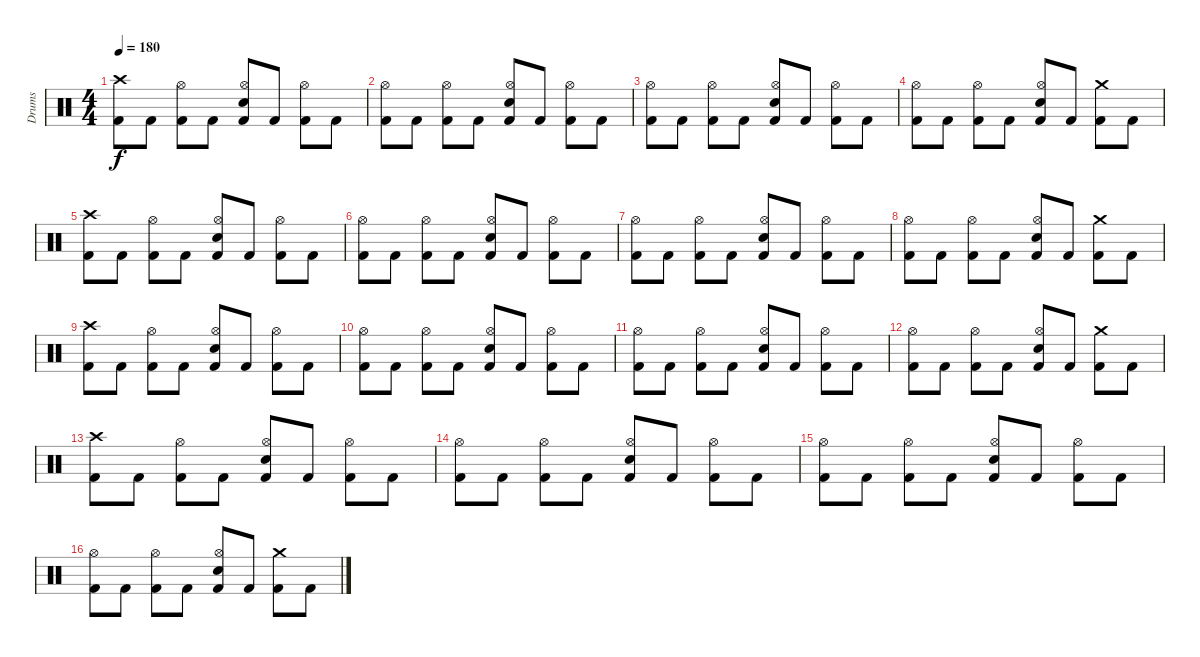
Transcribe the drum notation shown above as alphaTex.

\track ("Drums" "Drums") {instrument percussion}
\staff {score}
\articulation defaults
\ts (4 4)
\tempo 180
\clef neutral
\ks c
("Crash high (hit)" "Kick (hit) 2").8{dy f} "Kick (hit) 2".8 ("Hi-Hat (open)" "Kick (hit) 2").8 "Kick (hit) 2".8 ("Hi-Hat (open)" "Electric Snare (hit)" "Kick (hit) 2").8 "Kick (hit) 2".8 ("Hi-Hat (open)" "Kick (hit) 2").8 "Kick (hit) 2".8 |
("Hi-Hat (open)" "Kick (hit) 2").8 "Kick (hit) 2".8 ("Hi-Hat (open)" "Kick (hit) 2").8 "Kick (hit) 2".8 ("Hi-Hat (open)" "Electric Snare (hit)" "Kick (hit) 2").8 "Kick (hit) 2".8 ("Hi-Hat (open)" "Kick (hit) 2").8 "Kick (hit) 2".8 |
("Hi-Hat (open)" "Kick (hit) 2").8 "Kick (hit) 2".8 ("Hi-Hat (open)" "Kick (hit) 2").8 "Kick (hit) 2".8 ("Hi-Hat (open)" "Electric Snare (hit)" "Kick (hit) 2").8 "Kick (hit) 2".8 ("Hi-Hat (open)" "Kick (hit) 2").8 "Kick (hit) 2".8 |
("Hi-Hat (open)" "Kick (hit) 2").8 "Kick (hit) 2".8 ("Hi-Hat (open)" "Kick (hit) 2").8 "Kick (hit) 2".8 ("Hi-Hat (open)" "Electric Snare (hit)" "Kick (hit) 2").8 "Kick (hit) 2".8 ("Crash medium (hit)" "Kick (hit) 2").8 "Kick (hit) 2".8 |
("Crash high (hit)" "Kick (hit) 2").8 "Kick (hit) 2".8 ("Hi-Hat (open)" "Kick (hit) 2").8 "Kick (hit) 2".8 ("Hi-Hat (open)" "Electric Snare (hit)" "Kick (hit) 2").8 "Kick (hit) 2".8 ("Hi-Hat (open)" "Kick (hit) 2").8 "Kick (hit) 2".8 |
("Hi-Hat (open)" "Kick (hit) 2").8 "Kick (hit) 2".8 ("Hi-Hat (open)" "Kick (hit) 2").8 "Kick (hit) 2".8 ("Hi-Hat (open)" "Electric Snare (hit)" "Kick (hit) 2").8 "Kick (hit) 2".8 ("Hi-Hat (open)" "Kick (hit) 2").8 "Kick (hit) 2".8 |
("Hi-Hat (open)" "Kick (hit) 2").8 "Kick (hit) 2".8 ("Hi-Hat (open)" "Kick (hit) 2").8 "Kick (hit) 2".8 ("Hi-Hat (open)" "Electric Snare (hit)" "Kick (hit) 2").8 "Kick (hit) 2".8 ("Hi-Hat (open)" "Kick (hit) 2").8 "Kick (hit) 2".8 |
("Hi-Hat (open)" "Kick (hit) 2").8 "Kick (hit) 2".8 ("Hi-Hat (open)" "Kick (hit) 2").8 "Kick (hit) 2".8 ("Hi-Hat (open)" "Electric Snare (hit)" "Kick (hit) 2").8 "Kick (hit) 2".8 ("Crash medium (hit)" "Kick (hit) 2").8 "Kick (hit) 2".8 |
("Crash high (hit)" "Kick (hit) 2").8 "Kick (hit) 2".8 ("Hi-Hat (open)" "Kick (hit) 2").8 "Kick (hit) 2".8 ("Hi-Hat (open)" "Electric Snare (hit)" "Kick (hit) 2").8 "Kick (hit) 2".8 ("Hi-Hat (open)" "Kick (hit) 2").8 "Kick (hit) 2".8 |
("Hi-Hat (open)" "Kick (hit) 2").8 "Kick (hit) 2".8 ("Hi-Hat (open)" "Kick (hit) 2").8 "Kick (hit) 2".8 ("Hi-Hat (open)" "Electric Snare (hit)" "Kick (hit) 2").8 "Kick (hit) 2".8 ("Hi-Hat (open)" "Kick (hit) 2").8 "Kick (hit) 2".8 |
("Hi-Hat (open)" "Kick (hit) 2").8 "Kick (hit) 2".8 ("Hi-Hat (open)" "Kick (hit) 2").8 "Kick (hit) 2".8 ("Hi-Hat (open)" "Electric Snare (hit)" "Kick (hit) 2").8 "Kick (hit) 2".8 ("Hi-Hat (open)" "Kick (hit) 2").8 "Kick (hit) 2".8 |
("Hi-Hat (open)" "Kick (hit) 2").8 "Kick (hit) 2".8 ("Hi-Hat (open)" "Kick (hit) 2").8 "Kick (hit) 2".8 ("Hi-Hat (open)" "Electric Snare (hit)" "Kick (hit) 2").8 "Kick (hit) 2".8 ("Crash medium (hit)" "Kick (hit) 2").8 "Kick (hit) 2".8 |
("Crash high (hit)" "Kick (hit) 2").8 "Kick (hit) 2".8 ("Hi-Hat (open)" "Kick (hit) 2").8 "Kick (hit) 2".8 ("Hi-Hat (open)" "Electric Snare (hit)" "Kick (hit) 2").8 "Kick (hit) 2".8 ("Hi-Hat (open)" "Kick (hit) 2").8 "Kick (hit) 2".8 |
("Hi-Hat (open)" "Kick (hit) 2").8 "Kick (hit) 2".8 ("Hi-Hat (open)" "Kick (hit) 2").8 "Kick (hit) 2".8 ("Hi-Hat (open)" "Electric Snare (hit)" "Kick (hit) 2").8 "Kick (hit) 2".8 ("Hi-Hat (open)" "Kick (hit) 2").8 "Kick (hit) 2".8 |
("Hi-Hat (open)" "Kick (hit) 2").8 "Kick (hit) 2".8 ("Hi-Hat (open)" "Kick (hit) 2").8 "Kick (hit) 2".8 ("Hi-Hat (open)" "Electric Snare (hit)" "Kick (hit) 2").8 "Kick (hit) 2".8 ("Hi-Hat (open)" "Kick (hit) 2").8 "Kick (hit) 2".8 |
("Hi-Hat (open)" "Kick (hit) 2").8 "Kick (hit) 2".8 ("Hi-Hat (open)" "Kick (hit) 2").8 "Kick (hit) 2".8 ("Hi-Hat (open)" "Electric Snare (hit)" "Kick (hit) 2").8 "Kick (hit) 2".8 ("Crash medium (hit)" "Kick (hit) 2").8 "Kick (hit) 2".8
